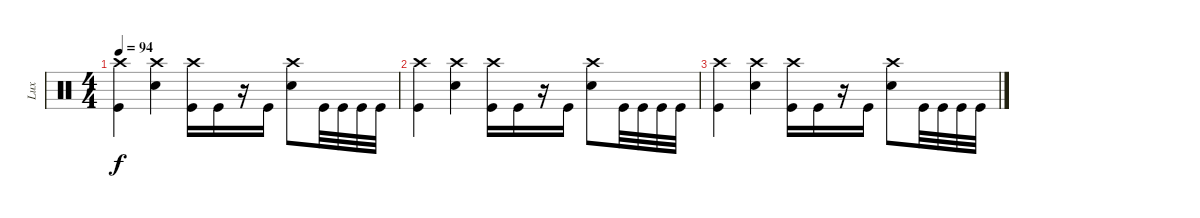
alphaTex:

\track ("Lux" "Lux") {instrument percussion}
\staff {score}
\articulation defaults
\ts (4 4)
\tempo 94
\clef neutral
\ks c
("Crash high (hit)" "Kick (hit)").4{dy f} ("Crash high (hit)" "Snare (hit) 2").4 ("Crash high (hit)" "Kick (hit)").16 "Kick (hit)".16 r.16 "Kick (hit)".16 ("Crash high (hit)" "Snare (hit) 2").8 "Kick (hit)".32 "Kick (hit)".32 "Kick (hit)".32 "Kick (hit)".32 |
("Crash high (hit)" "Kick (hit)").4 ("Crash high (hit)" "Snare (hit) 2").4 ("Crash high (hit)" "Kick (hit)").16 "Kick (hit)".16 r.16 "Kick (hit)".16 ("Crash high (hit)" "Snare (hit) 2").8 "Kick (hit)".32 "Kick (hit)".32 "Kick (hit)".32 "Kick (hit)".32 |
("Crash high (hit)" "Kick (hit)").4 ("Crash high (hit)" "Snare (hit) 2").4 ("Crash high (hit)" "Kick (hit)").16 "Kick (hit)".16 r.16 "Kick (hit)".16 ("Crash high (hit)" "Snare (hit) 2").8 "Kick (hit)".32 "Kick (hit)".32 "Kick (hit)".32 "Kick (hit)".32
